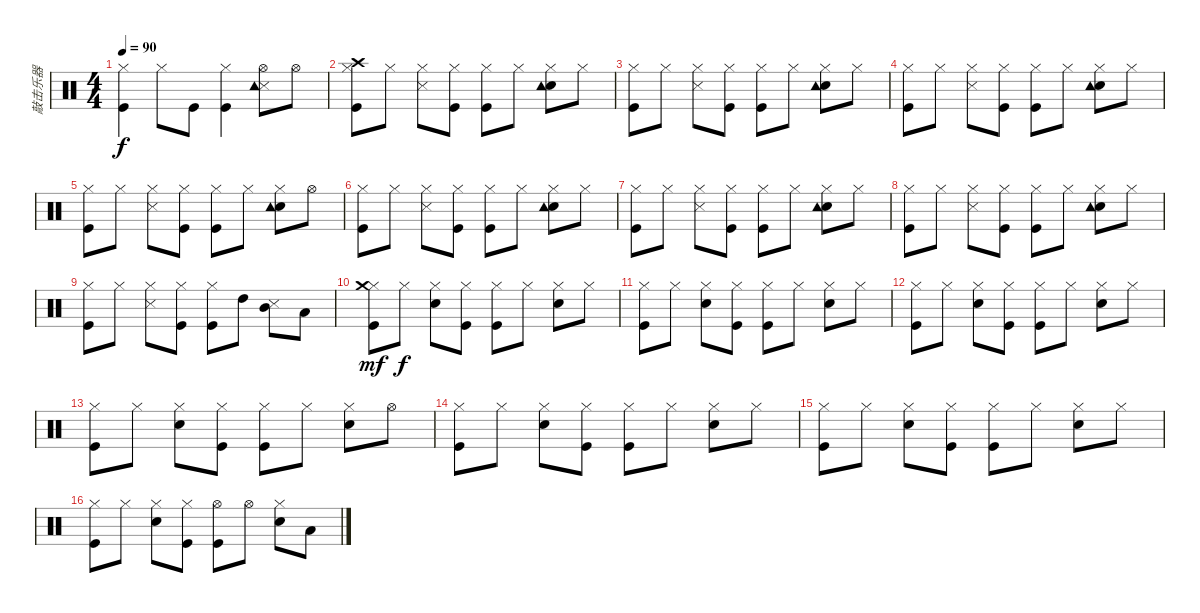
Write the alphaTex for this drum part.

\track ("敲击乐器" "敲击乐器") {instrument percussion}
\staff {score}
\articulation defaults
\ts (4 4)
\tempo 90
\clef neutral
\ks c
("Hi-Hat (closed)" "Kick (hit)").4{dy f} "Hi-Hat (closed)".8 "Kick (hit)".8 ("Hi-Hat (closed)" "Kick (hit)").4 ("Hi-Hat (open)" "Snare (side stick) 3" "Tambourine (hit)").8 "Hi-Hat (open)".8 |
("Hi-Hat (closed)" "Kick (hit)" "Crash high (hit)").8 "Hi-Hat (closed)".8 ("Hi-Hat (closed)" "Snare (side stick) 3").8 ("Hi-Hat (closed)" "Kick (hit)").8 ("Hi-Hat (closed)" "Kick (hit)").8 "Hi-Hat (closed)".8 ("Hi-Hat (closed)" "Snare (hit) 2" "Tambourine (hit)").8 "Hi-Hat (closed)".8 |
("Hi-Hat (closed)" "Kick (hit)").8 "Hi-Hat (closed)".8 ("Hi-Hat (closed)" "Snare (side stick) 3").8 ("Hi-Hat (closed)" "Kick (hit)").8 ("Hi-Hat (closed)" "Kick (hit)").8 "Hi-Hat (closed)".8 ("Hi-Hat (closed)" "Snare (hit) 2" "Tambourine (hit)").8 "Hi-Hat (closed)".8 |
("Hi-Hat (closed)" "Kick (hit)").8 "Hi-Hat (closed)".8 ("Hi-Hat (closed)" "Snare (side stick) 3").8 ("Hi-Hat (closed)" "Kick (hit)").8 ("Hi-Hat (closed)" "Kick (hit)").8 "Hi-Hat (closed)".8 ("Hi-Hat (closed)" "Snare (hit) 2" "Tambourine (hit)").8 "Hi-Hat (closed)".8 |
("Hi-Hat (closed)" "Kick (hit)").8 "Hi-Hat (closed)".8 ("Hi-Hat (closed)" "Snare (side stick) 3").8 ("Hi-Hat (closed)" "Kick (hit)").8 ("Hi-Hat (closed)" "Kick (hit)").8 "Hi-Hat (closed)".8 ("Hi-Hat (closed)" "Snare (hit) 2" "Tambourine (hit)").8 "Hi-Hat (open)".8 |
("Hi-Hat (closed)" "Kick (hit)").8 "Hi-Hat (closed)".8 ("Hi-Hat (closed)" "Snare (side stick) 3").8 ("Hi-Hat (closed)" "Kick (hit)").8 ("Hi-Hat (closed)" "Kick (hit)").8 "Hi-Hat (closed)".8 ("Hi-Hat (closed)" "Snare (hit) 2" "Tambourine (hit)").8 "Hi-Hat (closed)".8 |
("Hi-Hat (closed)" "Kick (hit)").8 "Hi-Hat (closed)".8 ("Hi-Hat (closed)" "Snare (side stick) 3").8 ("Hi-Hat (closed)" "Kick (hit)").8 ("Hi-Hat (closed)" "Kick (hit)").8 "Hi-Hat (closed)".8 ("Hi-Hat (closed)" "Snare (hit) 2" "Tambourine (hit)").8 "Hi-Hat (closed)".8 |
("Hi-Hat (closed)" "Kick (hit)").8 "Hi-Hat (closed)".8 ("Hi-Hat (closed)" "Snare (side stick) 3").8 ("Hi-Hat (closed)" "Kick (hit)").8 ("Hi-Hat (closed)" "Kick (hit)").8 "Hi-Hat (closed)".8 ("Hi-Hat (closed)" "Snare (hit) 2" "Tambourine (hit)").8 "Hi-Hat (closed)".8 |
("Hi-Hat (closed)" "Kick (hit)").8 "Hi-Hat (closed)".8 ("Hi-Hat (closed)" "Snare (side stick) 3").8 ("Hi-Hat (closed)" "Kick (hit)").8 ("Hi-Hat (closed)" "Kick (hit)").8 "High Tom (hit)".8 ("Snare (side stick) 3" "Mid Tom (hit)").8 "Low Tom (hit)".8 |
("Hi-Hat (closed)" "Kick (hit)" "Crash medium (hit)").8{dy mf} "Hi-Hat (closed)".8{dy f} ("Hi-Hat (closed)" "Snare (hit) 2").8 ("Hi-Hat (closed)" "Kick (hit)").8 ("Hi-Hat (closed)" "Kick (hit)").8 "Hi-Hat (closed)".8 ("Hi-Hat (closed)" "Snare (hit) 2").8 "Hi-Hat (closed)".8 |
("Hi-Hat (closed)" "Kick (hit)").8 "Hi-Hat (closed)".8 ("Hi-Hat (closed)" "Snare (hit) 2").8 ("Hi-Hat (closed)" "Kick (hit)").8 ("Hi-Hat (closed)" "Kick (hit)").8 "Hi-Hat (closed)".8 ("Hi-Hat (closed)" "Snare (hit) 2").8 "Hi-Hat (closed)".8 |
("Hi-Hat (closed)" "Kick (hit)").8 "Hi-Hat (closed)".8 ("Hi-Hat (closed)" "Snare (hit) 2").8 ("Hi-Hat (closed)" "Kick (hit)").8 ("Hi-Hat (closed)" "Kick (hit)").8 "Hi-Hat (closed)".8 ("Hi-Hat (closed)" "Snare (hit) 2").8 "Hi-Hat (closed)".8 |
("Hi-Hat (closed)" "Kick (hit)").8 "Hi-Hat (closed)".8 ("Hi-Hat (closed)" "Snare (hit) 2").8 ("Hi-Hat (closed)" "Kick (hit)").8 ("Hi-Hat (closed)" "Kick (hit)").8 "Hi-Hat (closed)".8 ("Hi-Hat (closed)" "Snare (hit) 2").8 "Hi-Hat (open)".8 |
("Hi-Hat (closed)" "Kick (hit)").8 "Hi-Hat (closed)".8 ("Hi-Hat (closed)" "Snare (hit) 2").8 ("Hi-Hat (closed)" "Kick (hit)").8 ("Hi-Hat (closed)" "Kick (hit)").8 "Hi-Hat (closed)".8 ("Hi-Hat (closed)" "Snare (hit) 2").8 "Hi-Hat (closed)".8 |
("Hi-Hat (closed)" "Kick (hit)").8 "Hi-Hat (closed)".8 ("Hi-Hat (closed)" "Snare (hit) 2").8 ("Hi-Hat (closed)" "Kick (hit)").8 ("Hi-Hat (closed)" "Kick (hit)").8 "Hi-Hat (closed)".8 ("Hi-Hat (closed)" "Snare (hit) 2").8 "Hi-Hat (closed)".8 |
("Hi-Hat (closed)" "Kick (hit)").8 "Hi-Hat (closed)".8 ("Hi-Hat (closed)" "Snare (hit) 2").8 ("Hi-Hat (closed)" "Kick (hit)").8 ("Hi-Hat (open)" "Kick (hit)").8 "Hi-Hat (open)".8 ("Hi-Hat (closed)" "Snare (hit) 2").8 "Low Tom (hit)".8
